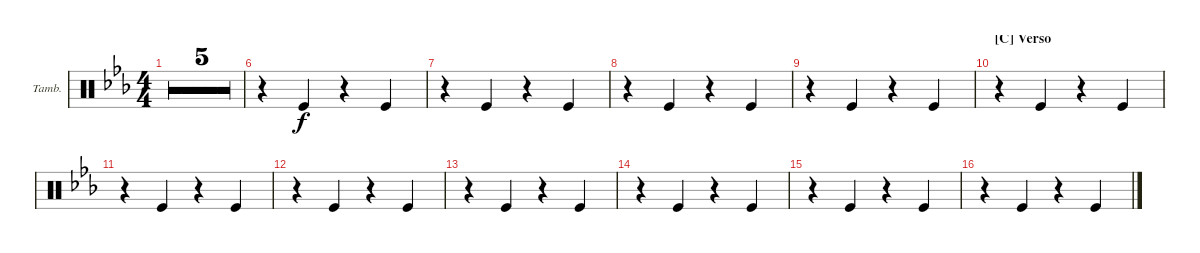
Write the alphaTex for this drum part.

\defaultSystemsLayout 4
\bracketExtendMode groupsimilarinstruments
\firstSystemTrackNameOrientation horizontal
\otherSystemsTrackNameOrientation horizontal
\track ("Tambourine" "Tamb.") {multiBarRest instrument percussion}
\staff {score}
\articulation defaults
\ts (4 4)
\tempo 65
\clef neutral
\scale
0.912989
\ks cminor
|
\scale
0.912989 |
\scale
0.912989 |
\scale
0.912989 |
\scale
1.05675
\barLineRight lightlight
|
\scale
0.943253 r.4 "Kick (hit)".4 r.4 "Kick (hit)".4 |
\scale
1.05675 r.4 "Kick (hit)".4 r.4 "Kick (hit)".4 |
\scale
0.943253 r.4 "Kick (hit)".4 r.4 "Kick (hit)".4 |
\scale
1.05675 r.4 "Kick (hit)".4 r.4 "Kick (hit)".4 |
\section ("C" "Verso")
\scale
0.943253 r.4 "Kick (hit)".4 r.4 "Kick (hit)".4 |
\scale
1.05675 r.4 "Kick (hit)".4 r.4 "Kick (hit)".4 |
\scale
0.943253 r.4 "Kick (hit)".4 r.4 "Kick (hit)".4 |
\scale
1.05675 r.4 "Kick (hit)".4 r.4 "Kick (hit)".4 |
\scale
0.943253 r.4 "Kick (hit)".4 r.4 "Kick (hit)".4 |
\scale
1.05675 r.4 "Kick (hit)".4 r.4 "Kick (hit)".4 |
\scale
0.943253 r.4 "Kick (hit)".4 r.4 "Kick (hit)".4
